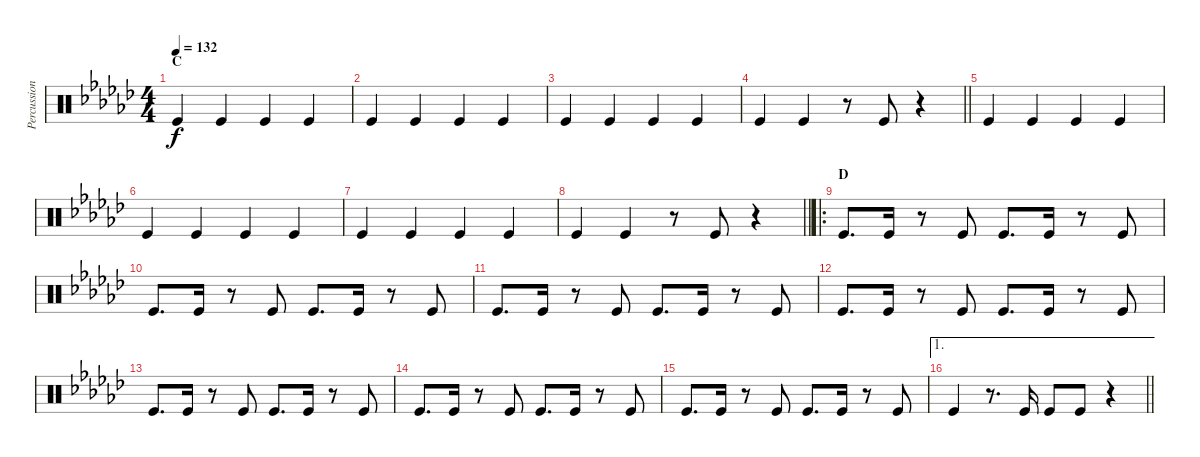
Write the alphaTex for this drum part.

\track ("Percussion foot" "Percussion") {instrument percussion}
\staff {score}
\articulation defaults
\ts (4 4)
\section ("" "C")
\tempo 132
\clef neutral
\ks gb "Kick (hit)".4{dy f} "Kick (hit)".4 "Kick (hit)".4 "Kick (hit)".4
|
"Kick (hit)".4 "Kick (hit)".4 "Kick (hit)".4 "Kick (hit)".4 |
"Kick (hit)".4 "Kick (hit)".4 "Kick (hit)".4 "Kick (hit)".4 |
\barLineRight lightlight "Kick (hit)".4 "Kick (hit)".4
r.8 "Kick (hit)".8 r.4 |
"Kick (hit)".4 "Kick (hit)".4 "Kick (hit)".4 "Kick (hit)".4 |
"Kick (hit)".4 "Kick (hit)".4 "Kick (hit)".4 "Kick (hit)".4 |
"Kick (hit)".4 "Kick (hit)".4 "Kick (hit)".4 "Kick (hit)".4 |
\barLineRight lightlight "Kick (hit)".4 "Kick (hit)".4
r.8 "Kick (hit)".8 r.4 |
\ro
\section ("" "D")
"Kick (hit)".8{d} "Kick (hit)".16 r.8 "Kick (hit)".8 "Kick (hit)".8{d} "Kick (hit)".16 r.8 "Kick (hit)".8 |
"Kick (hit)".8{d} "Kick (hit)".16 r.8 "Kick (hit)".8 "Kick (hit)".8{d} "Kick (hit)".16 r.8 "Kick (hit)".8 |
"Kick (hit)".8{d} "Kick (hit)".16 r.8 "Kick (hit)".8 "Kick (hit)".8{d} "Kick (hit)".16 r.8 "Kick (hit)".8 |
"Kick (hit)".8{d} "Kick (hit)".16 r.8 "Kick (hit)".8 "Kick (hit)".8{d} "Kick (hit)".16 r.8 "Kick (hit)".8 |
"Kick (hit)".8{d} "Kick (hit)".16 r.8 "Kick (hit)".8 "Kick (hit)".8{d} "Kick (hit)".16 r.8 "Kick (hit)".8 |
"Kick (hit)".8{d} "Kick (hit)".16 r.8 "Kick (hit)".8 "Kick (hit)".8{d} "Kick (hit)".16 r.8 "Kick (hit)".8 |
"Kick (hit)".8{d} "Kick (hit)".16 r.8 "Kick (hit)".8 "Kick (hit)".8{d} "Kick (hit)".16 r.8 "Kick (hit)".8 |
\ae 1
\barLineRight lightlight "Kick (hit)".4
r.8{d} "Kick (hit)".16 "Kick (hit)".8 "Kick (hit)".8 r.4
